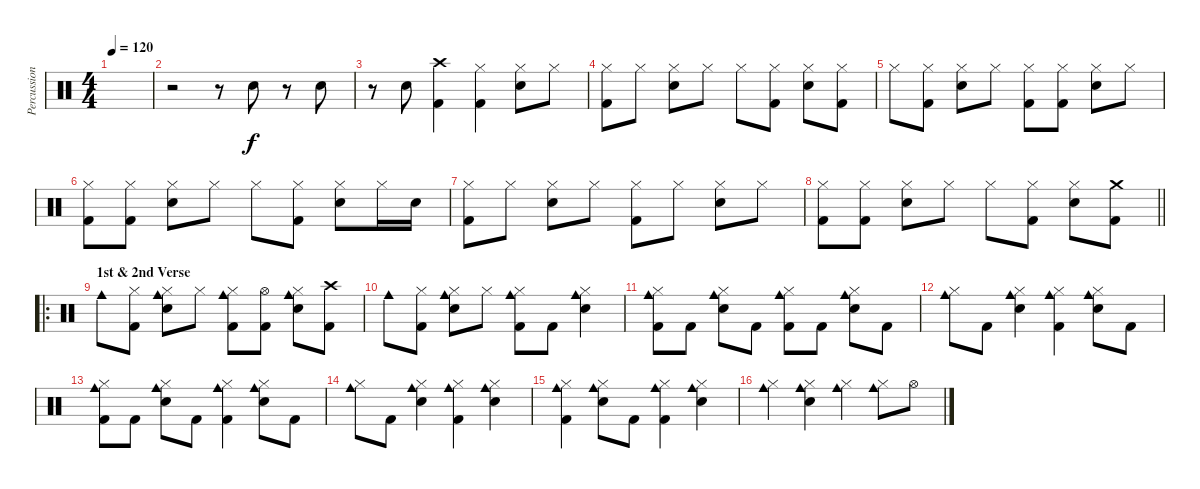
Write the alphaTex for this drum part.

\track ("Percussions" "Percussion") {instrument percussion}
\staff {score}
\articulation defaults
\ts (4 4)
\tempo 120
\clef neutral
\ks c
|
r.2 r.8 "Snare (hit) 2".8 r.8 "Snare (hit) 2".8 |
r.8 "Snare (hit) 2".8 ("Crash high (hit)" "Kick (hit) 2").4 ("Hi-Hat (closed)" "Kick (hit) 2").4 ("Hi-Hat (closed)" "Snare (hit) 2").8 "Hi-Hat (closed)".8 |
("Hi-Hat (closed)" "Kick (hit) 2").8 "Hi-Hat (closed)".8 ("Hi-Hat (closed)" "Snare (hit) 2").8 "Hi-Hat (closed)".8 "Hi-Hat (closed)".8 ("Hi-Hat (closed)" "Kick (hit) 2").8 ("Hi-Hat (closed)" "Snare (hit) 2").8 ("Hi-Hat (closed)" "Kick (hit) 2").8 |
"Hi-Hat (closed)".8 ("Hi-Hat (closed)" "Kick (hit) 2").8 ("Hi-Hat (closed)" "Snare (hit) 2").8 "Hi-Hat (closed)".8 ("Hi-Hat (closed)" "Kick (hit) 2").8 ("Hi-Hat (closed)" "Kick (hit) 2").8 ("Hi-Hat (closed)" "Snare (hit) 2").8 "Hi-Hat (closed)".8 |
("Hi-Hat (closed)" "Kick (hit) 2").8 ("Hi-Hat (closed)" "Kick (hit) 2").8 ("Hi-Hat (closed)" "Snare (hit) 2").8 "Hi-Hat (closed)".8 "Hi-Hat (closed)".8 ("Hi-Hat (closed)" "Kick (hit) 2").8 ("Hi-Hat (closed)" "Snare (hit) 2").8 "Hi-Hat (closed)".16 "Snare (hit) 2".16 |
("Hi-Hat (closed)" "Kick (hit) 2").8 "Hi-Hat (closed)".8 ("Hi-Hat (closed)" "Snare (hit) 2").8 "Hi-Hat (closed)".8 ("Hi-Hat (closed)" "Kick (hit) 2").8 "Hi-Hat (closed)".8 ("Hi-Hat (closed)" "Snare (hit) 2").8 "Hi-Hat (closed)".8 |
\barLineRight lightlight
("Hi-Hat (closed)" "Kick (hit) 2").8 ("Hi-Hat (closed)" "Kick (hit) 2").8 ("Hi-Hat (closed)" "Snare (hit) 2").8 "Hi-Hat (closed)".8 "Hi-Hat (closed)".8 ("Hi-Hat (closed)" "Kick (hit) 2").8 ("Hi-Hat (closed)" "Snare (hit) 2").8 ("Crash medium (hit)" "Kick (hit) 2").8 |
\ro
\section ("" "1st & 2nd Verse")
"Cowbell medium (hit)".8 ("Hi-Hat (closed)" "Kick (hit) 2").8 ("Cowbell medium (hit)" "Hi-Hat (closed)" "Snare (hit) 2").8 "Hi-Hat (closed)".8 ("Cowbell medium (hit)" "Hi-Hat (closed)" "Kick (hit) 2").8 ("Hi-Hat (open)" "Kick (hit) 2").8 ("Cowbell medium (hit)" "Hi-Hat (closed)" "Snare (hit) 2").8 ("Crash high (hit)" "Kick (hit) 2").8 |
"Cowbell medium (hit)".8 ("Hi-Hat (closed)" "Kick (hit) 2").8 ("Cowbell medium (hit)" "Hi-Hat (closed)" "Snare (hit) 2").8 "Hi-Hat (closed)".8 ("Cowbell medium (hit)" "Hi-Hat (closed)" "Kick (hit) 2").8 "Kick (hit) 2".8 ("Cowbell medium (hit)" "Hi-Hat (closed)" "Snare (hit) 2").4 |
("Cowbell medium (hit)" "Hi-Hat (closed)" "Kick (hit) 2").8 "Kick (hit) 2".8 ("Cowbell medium (hit)" "Hi-Hat (closed)" "Snare (hit) 2").8 "Kick (hit) 2".8 ("Cowbell medium (hit)" "Hi-Hat (closed)" "Kick (hit) 2").8 "Kick (hit) 2".8 ("Cowbell medium (hit)" "Hi-Hat (closed)" "Snare (hit) 2").8 "Kick (hit) 2".8 |
("Cowbell medium (hit)" "Hi-Hat (closed)").8 "Kick (hit) 2".8 ("Cowbell medium (hit)" "Hi-Hat (closed)" "Snare (hit) 2").4 ("Cowbell medium (hit)" "Hi-Hat (closed)" "Kick (hit) 2").4 ("Cowbell medium (hit)" "Hi-Hat (closed)" "Snare (hit) 2").8 "Kick (hit) 2".8 |
("Cowbell medium (hit)" "Hi-Hat (closed)" "Kick (hit) 2").8 "Kick (hit) 2".8 ("Cowbell medium (hit)" "Hi-Hat (closed)" "Snare (hit) 2").8 "Kick (hit) 2".8 ("Cowbell medium (hit)" "Hi-Hat (closed)" "Kick (hit) 2").4 ("Cowbell medium (hit)" "Hi-Hat (closed)" "Snare (hit) 2").8 "Kick (hit) 2".8 |
("Cowbell medium (hit)" "Hi-Hat (closed)").8 "Kick (hit) 2".8 ("Cowbell medium (hit)" "Hi-Hat (closed)" "Snare (hit) 2").4 ("Cowbell medium (hit)" "Hi-Hat (closed)" "Kick (hit) 2").4 ("Cowbell medium (hit)" "Hi-Hat (closed)" "Snare (hit) 2").4 |
("Cowbell medium (hit)" "Hi-Hat (closed)" "Kick (hit) 2").4 ("Cowbell medium (hit)" "Hi-Hat (closed)" "Snare (hit) 2").8 "Kick (hit) 2".8 ("Cowbell medium (hit)" "Hi-Hat (closed)" "Kick (hit) 2").4 ("Cowbell medium (hit)" "Hi-Hat (closed)" "Snare (hit) 2").4 |
("Cowbell medium (hit)" "Hi-Hat (closed)").4 ("Cowbell medium (hit)" "Hi-Hat (closed)" "Snare (hit) 2").4 ("Cowbell medium (hit)" "Hi-Hat (closed)").4 ("Cowbell medium (hit)" "Hi-Hat (closed)").8 "Hi-Hat (open)".8
